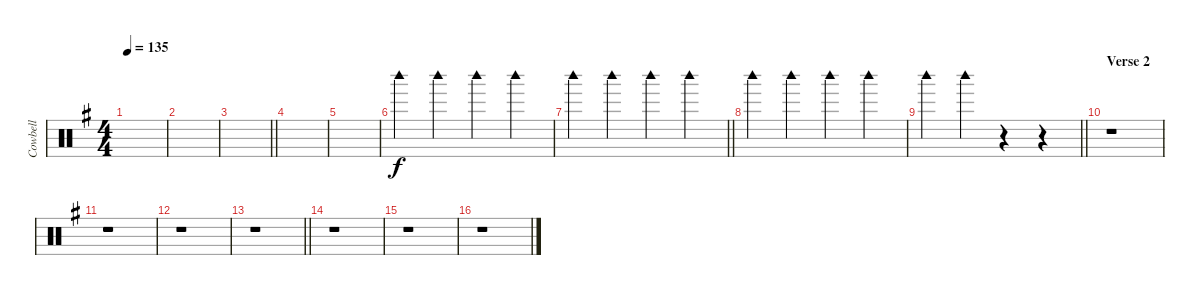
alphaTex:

\track ("Cowbell" "Cowbell") {instrument percussion}
\staff {score}
\articulation defaults
\ts (4 4)
\tempo 135
\clef neutral
\ks g
|
|
\barLineRight lightlight
|
|
|
"Woodblock high (hit)".4 "Woodblock high (hit)".4 "Woodblock high (hit)".4 "Woodblock high (hit)".4 |
\barLineRight lightlight "Woodblock high (hit)".4 "Woodblock high (hit)".4 "Woodblock high (hit)".4 "Woodblock high (hit)".4
|
"Woodblock high (hit)".4 "Woodblock high (hit)".4 "Woodblock high (hit)".4 "Woodblock high (hit)".4 |
\barLineRight lightlight "Woodblock high (hit)".4 "Woodblock high (hit)".4
r.4 r.4 |
\section ("" "Verse 2")
r.1 |
r.1 |
r.1 |
\barLineRight lightlight
r.1 |
r.1 |
r.1 |
r.1
